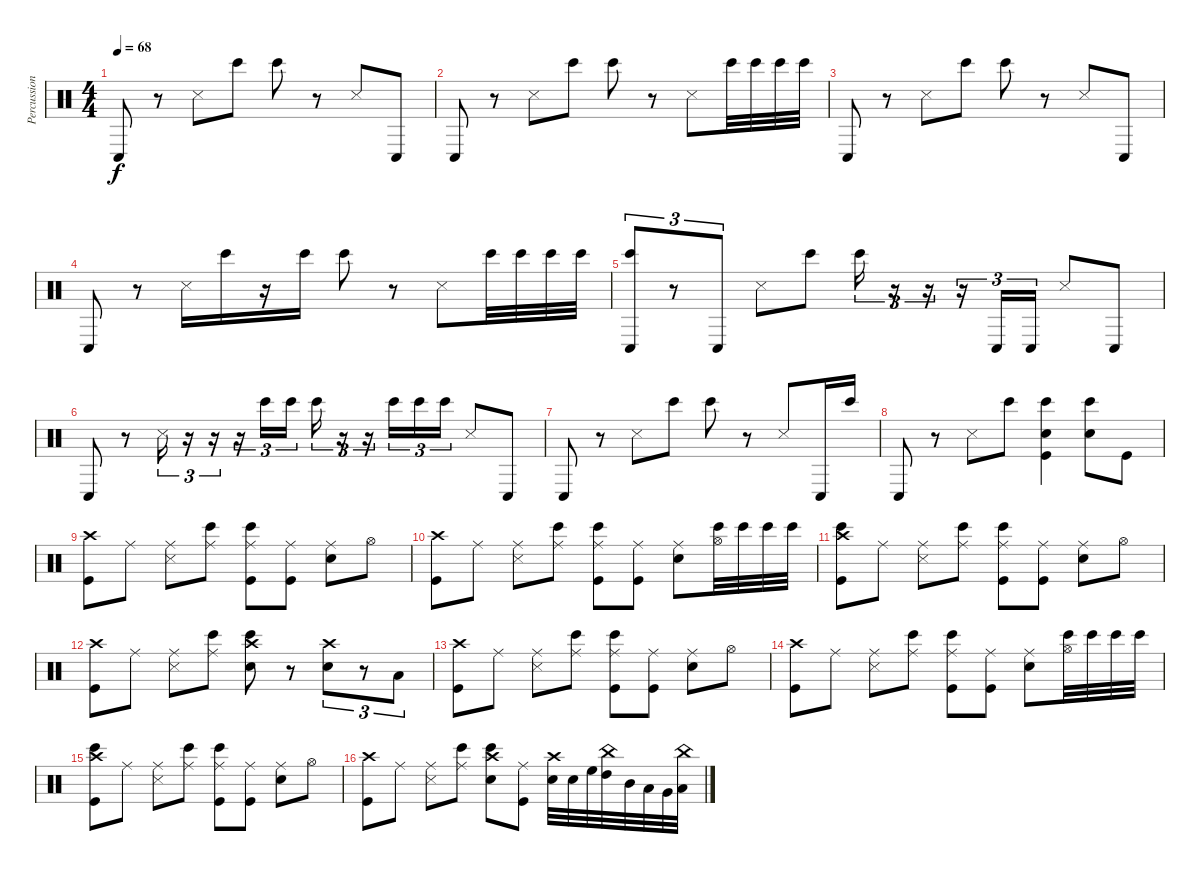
\track ("Percussion" "Percussion") {instrument percussion}
\staff {score}
\articulation defaults
\ts (4 4)
\tempo 68
\clef neutral
\ks c "Conga low (hit)".8{dy f}
r.8 "Snare (side stick) 3".8 "Bongo High (hit)".8 "Bongo High (hit)".8 r.8 "Snare (side stick) 3".8 "Conga low (hit)".8 |
"Conga low (hit)".8 r.8 "Snare (side stick) 3".8 "Bongo High (hit)".8 "Bongo High (hit)".8 r.8 "Snare (side stick) 3".8 "Bongo High (hit)".32 "Bongo High (hit)".32 "Bongo High (hit)".32 "Bongo High (hit)".32 |
"Conga low (hit)".8 r.8 "Snare (side stick) 3".8 "Bongo High (hit)".8 "Bongo High (hit)".8 r.8 "Snare (side stick) 3".8 "Conga low (hit)".8 |
"Conga low (hit)".8 r.8 "Snare (side stick) 3".16 "Bongo High (hit)".16 r.16 "Bongo High (hit)".16 "Bongo High (hit)".8 r.8 "Snare (side stick) 3".8 "Bongo High (hit)".32 "Bongo High (hit)".32 "Bongo High (hit)".32 "Bongo High (hit)".32 |
("Bongo High (hit)" "Conga low (hit)").8{tu (3 2)} r.8{tu (3 2)} "Conga low (hit)".8{tu (3 2)} "Snare (side stick) 3".8 "Bongo High (hit)".8 "Bongo High (hit)".16{tu (3 2)} r.16{tu (3 2)} r.16{tu (3 2)} r.16{tu (3 2)} "Conga low (hit)".16{tu (3 2)} "Conga low (hit)".16{tu (3 2)} "Snare (side stick) 3".8 "Conga low (hit)".8 |
"Conga low (hit)".8 r.8 "Snare (side stick) 3".16{tu (3 2)} r.16{tu (3 2)} r.16{tu (3 2)} r.16{tu (3 2)} "Bongo High (hit)".16{tu (3 2)} "Bongo High (hit)".16{tu (3 2)} "Bongo High (hit)".16{tu (3 2)} r.16{tu (3 2)} r.16{tu (3 2)} "Bongo High (hit)".16{tu (3 2)} "Bongo High (hit)".16{tu (3 2)} "Bongo High (hit)".16{tu (3 2)} "Snare (side stick) 3".8 "Conga low (hit)".8 |
"Conga low (hit)".8 r.8 "Snare (side stick) 3".8 "Bongo High (hit)".8 "Bongo High (hit)".8 r.8 "Snare (side stick) 3".8 "Conga low (hit)".16 "Bongo High (hit)".16 |
"Conga low (hit)".8 r.8 "Snare (side stick) 3".8 "Bongo High (hit)".8 ("Bongo High (hit)" "Snare (hit) 2" "Kick (hit)").4 ("Bongo High (hit)" "Snare (hit) 2").8 "Kick (hit)".8 |
("Crash high (hit)" "Kick (hit)").8 "Ride (middle)".8 ("Ride (middle)" "Snare (side stick) 3").8 ("Ride (middle)" "Bongo High (hit)").8 ("Ride (middle)" "Bongo High (hit)" "Kick (hit)").8 ("Ride (middle)" "Kick (hit)").8 ("Ride (middle)" "Snare (hit) 2").8 "Hi-Hat (open)".8 |
("Crash high (hit)" "Kick (hit)").8 "Ride (middle)".8 ("Ride (middle)" "Snare (side stick) 3").8 ("Ride (middle)" "Bongo High (hit)").8 ("Ride (middle)" "Bongo High (hit)" "Kick (hit)").8 ("Ride (middle)" "Kick (hit)").8 ("Ride (middle)" "Snare (hit) 2").8 ("Hi-Hat (open)" "Bongo High (hit)").32 "Bongo High (hit)".32 "Bongo High (hit)".32 "Bongo High (hit)".32 |
("Crash high (hit)" "Bongo High (hit)" "Kick (hit)").8 "Ride (middle)".8 ("Ride (middle)" "Snare (side stick) 3").8 ("Ride (middle)" "Bongo High (hit)").8 ("Ride (middle)" "Bongo High (hit)" "Kick (hit)").8 ("Ride (middle)" "Kick (hit)").8 ("Ride (middle)" "Snare (hit) 2").8 "Hi-Hat (open)".8 |
("Crash high (hit)" "Kick (hit)").8 "Ride (middle)".8 ("Ride (middle)" "Snare (side stick) 3").8 ("Ride (middle)" "Bongo High (hit)").8 ("Crash high (hit)" "Bongo High (hit)" "Snare (hit) 2").8 r.8 ("Crash high (hit)" "Snare (hit) 2").8{tu (3 2)} r.8{tu (3 2)} "Low Floor Tom (hit)".8{tu (3 2)} |
("Crash high (hit)" "Kick (hit)").8 "Ride (middle)".8 ("Ride (middle)" "Snare (side stick) 3").8 ("Ride (middle)" "Bongo High (hit)").8 ("Ride (middle)" "Bongo High (hit)" "Kick (hit)").8 ("Ride (middle)" "Kick (hit)").8 ("Ride (middle)" "Snare (hit) 2").8 "Hi-Hat (open)".8 |
("Crash high (hit)" "Kick (hit)").8 "Ride (middle)".8 ("Ride (middle)" "Snare (side stick) 3").8 ("Ride (middle)" "Bongo High (hit)").8 ("Ride (middle)" "Bongo High (hit)" "Kick (hit)").8 ("Ride (middle)" "Kick (hit)").8 ("Ride (middle)" "Snare (hit) 2").8 ("Hi-Hat (open)" "Bongo High (hit)").32 "Bongo High (hit)".32 "Bongo High (hit)".32 "Bongo High (hit)".32 |
("Crash high (hit)" "Bongo High (hit)" "Kick (hit)").8 "Ride (middle)".8 ("Ride (middle)" "Snare (side stick) 3").8 ("Ride (middle)" "Bongo High (hit)").8 ("Ride (middle)" "Bongo High (hit)" "Kick (hit)").8 ("Ride (middle)" "Kick (hit)").8 ("Ride (middle)" "Snare (hit) 2").8 "Hi-Hat (open)".8 |
("Crash high (hit)" "Kick (hit)").8 "Ride (middle)".8 ("Ride (middle)" "Snare (side stick) 3").8 ("Ride (middle)" "Bongo High (hit)").8 ("Crash high (hit)" "Bongo High (hit)" "Snare (hit) 2").8 ("Ride (middle)" "Kick (hit)").8 ("Crash high (hit)" "Snare (hit) 2").32 "Snare (hit) 2".32 "High Floor Tom (hit)".32 ("High Tom (hit)" "China (hit)").32 "Mid Tom (hit)".32 "Low Tom (hit)".32 "Very Low Tom (hit)".32 ("Low Floor Tom (hit)" "China (hit)").32
